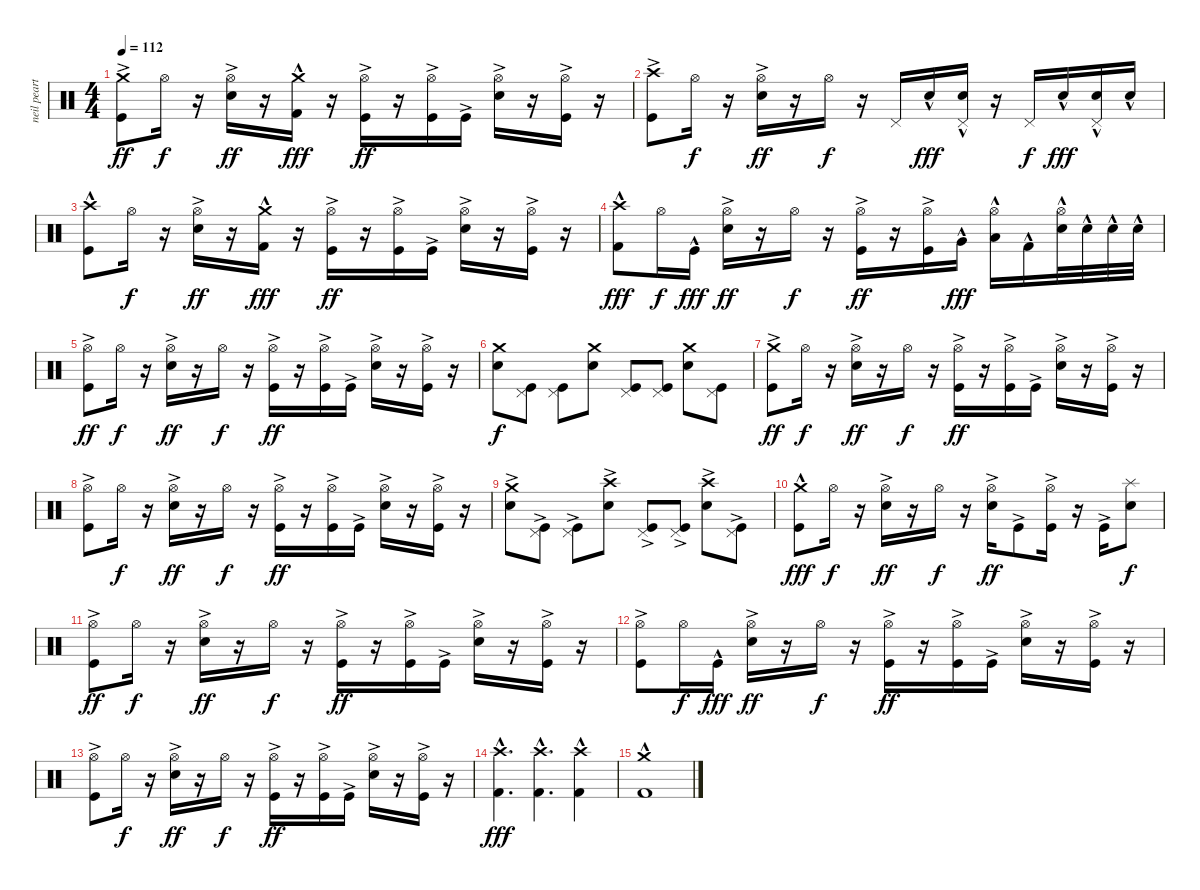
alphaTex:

\track ("neil peart" "neil peart") {instrument percussion}
\staff {score}
\articulation defaults
\ts (4 4)
\tempo 112
\clef neutral
\ks c
("Crash medium (hit)" "Kick (hit)"{ac}).8{dy ff} "Hi-Hat (open)".16{dy f} r.16 ("Hi-Hat (open)" "Electric Snare (hit)"{ac}).16{dy ff} r.16 ("Crash medium (hit)" "Kick (hit) 2"{hac}).16{dy fff} r.16 ("Hi-Hat (open)" "Kick (hit)"{ac}).16{dy ff} r.16 ("Hi-Hat (open)" "Kick (hit)"{ac}).16 "Kick (hit)"{ac}.16 ("Hi-Hat (open)" "Electric Snare (hit)"{ac}).16 r.16 ("Hi-Hat (open)" "Kick (hit)"{ac}).16 r.16 |
("Crash high (hit)" "Kick (hit)"{ac}).8 "Hi-Hat (open)".16{dy f} r.16 ("Hi-Hat (open)" "Electric Snare (hit)"{ac}).16{dy ff} r.16 "Hi-Hat (open)".16{dy f} r.16 "Pedal Hi-Hat (hit)".16 "Electric Snare (hit)"{hac}.16{dy fff} ("Pedal Hi-Hat (hit)" "Electric Snare (hit)"{hac}).16 r.16 "Pedal Hi-Hat (hit)".16{dy f} "Electric Snare (hit)"{hac}.16{dy fff} ("Pedal Hi-Hat (hit)" "Electric Snare (hit)"{hac}).16 "Electric Snare (hit)"{hac}.16 |
("Crash high (hit)" "Kick (hit)"{hac}).8 "Hi-Hat (open)".16{dy f} r.16 ("Hi-Hat (open)" "Electric Snare (hit)"{ac}).16{dy ff} r.16 ("Crash medium (hit)" "Kick (hit) 2"{hac}).16{dy fff} r.16 ("Hi-Hat (open)" "Kick (hit)"{ac}).16{dy ff} r.16 ("Hi-Hat (open)" "Kick (hit)"{ac}).16 "Kick (hit)"{ac}.16 ("Hi-Hat (open)" "Electric Snare (hit)"{ac}).16 r.16 ("Hi-Hat (open)" "Kick (hit)"{ac}).16 r.16 |
("Crash high (hit)" "Kick (hit) 2"{hac}).8{dy fff} "Hi-Hat (open)".16{dy f} "Kick (hit)"{hac}.16{dy fff} ("Hi-Hat (open)" "Electric Snare (hit)"{ac}).16{dy ff} r.16 "Hi-Hat (open)".16{dy f} r.16 ("Hi-Hat (open)" "Kick (hit)"{ac}).16{dy ff} r.16 ("Hi-Hat (open)" "Kick (hit)"{ac}).16 "Very Low Tom (hit)"{hac}.16{dy fff} ("Hi-Hat (open)"{hac} "Low Floor Tom (hit)"{hac}).16 "Kick (hit) 2"{hac}.16 ("Hi-Hat (open)"{hac} "Electric Snare (hit)"{hac}).32 "Electric Snare (hit)"{hac}.32 "Electric Snare (hit)"{hac}.32 "Electric Snare (hit)"{hac}.32 |
("Hi-Hat (open)" "Kick (hit)"{ac}).8{dy ff} "Hi-Hat (open)".16{dy f} r.16 ("Hi-Hat (open)" "Electric Snare (hit)"{ac}).16{dy ff} r.16 "Hi-Hat (open)".16{dy f} r.16 ("Hi-Hat (open)" "Kick (hit)"{ac}).16{dy ff} r.16 ("Hi-Hat (open)" "Kick (hit)"{ac}).16 "Kick (hit)"{ac}.16 ("Hi-Hat (open)" "Electric Snare (hit)"{ac}).16 r.16 ("Hi-Hat (open)" "Kick (hit)"{ac}).16 r.16 |
("Crash medium (hit)" "Electric Snare (hit)").8{dy f} ("Pedal Hi-Hat (hit)" "Kick (hit)").8 ("Pedal Hi-Hat (hit)" "Kick (hit)").8 ("Crash medium (hit)" "Electric Snare (hit)").8 ("Pedal Hi-Hat (hit)" "Kick (hit)").8 ("Pedal Hi-Hat (hit)" "Kick (hit)").8 ("Crash medium (hit)" "Electric Snare (hit)").8 ("Pedal Hi-Hat (hit)" "Kick (hit)").8 |
("Crash medium (hit)" "Kick (hit)"{ac}).8{dy ff} "Hi-Hat (open)".16{dy f} r.16 ("Hi-Hat (open)" "Electric Snare (hit)"{ac}).16{dy ff} r.16 "Hi-Hat (open)".16{dy f} r.16 ("Hi-Hat (open)" "Kick (hit)"{ac}).16{dy ff} r.16 ("Hi-Hat (open)" "Kick (hit)"{ac}).16 "Kick (hit)"{ac}.16 ("Hi-Hat (open)" "Electric Snare (hit)"{ac}).16 r.16 ("Hi-Hat (open)" "Kick (hit)"{ac}).16 r.16 |
("Hi-Hat (open)" "Kick (hit)"{ac}).8 "Hi-Hat (open)".16{dy f} r.16 ("Hi-Hat (open)" "Electric Snare (hit)"{ac}).16{dy ff} r.16 "Hi-Hat (open)".16{dy f} r.16 ("Hi-Hat (open)" "Kick (hit)"{ac}).16{dy ff} r.16 ("Hi-Hat (open)" "Kick (hit)"{ac}).16 "Kick (hit)"{ac}.16 ("Hi-Hat (open)" "Electric Snare (hit)"{ac}).16 r.16 ("Hi-Hat (open)" "Kick (hit)"{ac}).16 r.16 |
("Crash medium (hit)"{ac} "Electric Snare (hit)"{ac}).8 ("Pedal Hi-Hat (hit)"{ac} "Kick (hit)"{ac}).8 ("Pedal Hi-Hat (hit)"{ac} "Kick (hit)"{ac}).8 ("Crash high (hit)"{ac} "Electric Snare (hit)"{ac}).8 ("Pedal Hi-Hat (hit)"{ac} "Kick (hit)"{ac}).8 ("Pedal Hi-Hat (hit)"{ac} "Kick (hit)"{ac}).8 ("Crash high (hit)"{ac} "Electric Snare (hit)"{ac}).8 ("Pedal Hi-Hat (hit)"{ac} "Kick (hit)"{ac}).8 |
("Crash medium (hit)" "Kick (hit)"{hac}).8{dy fff} "Hi-Hat (open)".16{dy f} r.16 ("Hi-Hat (open)" "Electric Snare (hit)"{ac}).16{dy ff} r.16 "Hi-Hat (open)".16{dy f} r.16 ("Hi-Hat (open)" "Electric Snare (hit)"{ac}).16{dy ff} "Kick (hit)"{ac}.8 ("Hi-Hat (open)" "Kick (hit)"{ac}).16 r.16 "Kick (hit)"{ac}.16 ("Splash (hit)" "Electric Snare (hit)").8{dy f} |
("Hi-Hat (open)" "Kick (hit)"{ac}).8{dy ff} "Hi-Hat (open)".16{dy f} r.16 ("Hi-Hat (open)" "Electric Snare (hit)"{ac}).16{dy ff} r.16 "Hi-Hat (open)".16{dy f} r.16 ("Hi-Hat (open)" "Kick (hit)"{ac}).16{dy ff} r.16 ("Hi-Hat (open)" "Kick (hit)"{ac}).16 "Kick (hit)"{ac}.16 ("Hi-Hat (open)" "Electric Snare (hit)"{ac}).16 r.16 ("Hi-Hat (open)" "Kick (hit)"{ac}).16 r.16 |
("Hi-Hat (open)" "Kick (hit)"{ac}).8 "Hi-Hat (open)".16{dy f} "Kick (hit)"{hac}.16{dy fff} ("Hi-Hat (open)" "Electric Snare (hit)"{ac}).16{dy ff} r.16 "Hi-Hat (open)".16{dy f} r.16 ("Hi-Hat (open)" "Kick (hit)"{ac}).16{dy ff} r.16 ("Hi-Hat (open)" "Kick (hit)"{ac}).16 "Kick (hit)"{ac}.16 ("Hi-Hat (open)" "Electric Snare (hit)"{ac}).16 r.16 ("Hi-Hat (open)" "Kick (hit)"{ac}).16 r.16 |
("Hi-Hat (open)" "Kick (hit)"{ac}).8 "Hi-Hat (open)".16{dy f} r.16 ("Hi-Hat (open)" "Electric Snare (hit)"{ac}).16{dy ff} r.16 "Hi-Hat (open)".16{dy f} r.16 ("Hi-Hat (open)" "Kick (hit)"{ac}).16{dy ff} r.16 ("Hi-Hat (open)" "Kick (hit)"{ac}).16 "Kick (hit)"{ac}.16 ("Hi-Hat (open)" "Electric Snare (hit)"{ac}).16 r.16 ("Hi-Hat (open)" "Kick (hit)"{ac}).16 r.16 |
("Crash high (hit)" "Kick (hit) 2"{hac}).4{d dy fff} ("Crash high (hit)" "Kick (hit) 2"{hac}).4{d} ("Crash high (hit)" "Kick (hit) 2"{hac}).4 |
("Crash medium (hit)" "Kick (hit) 2"{hac}).1
